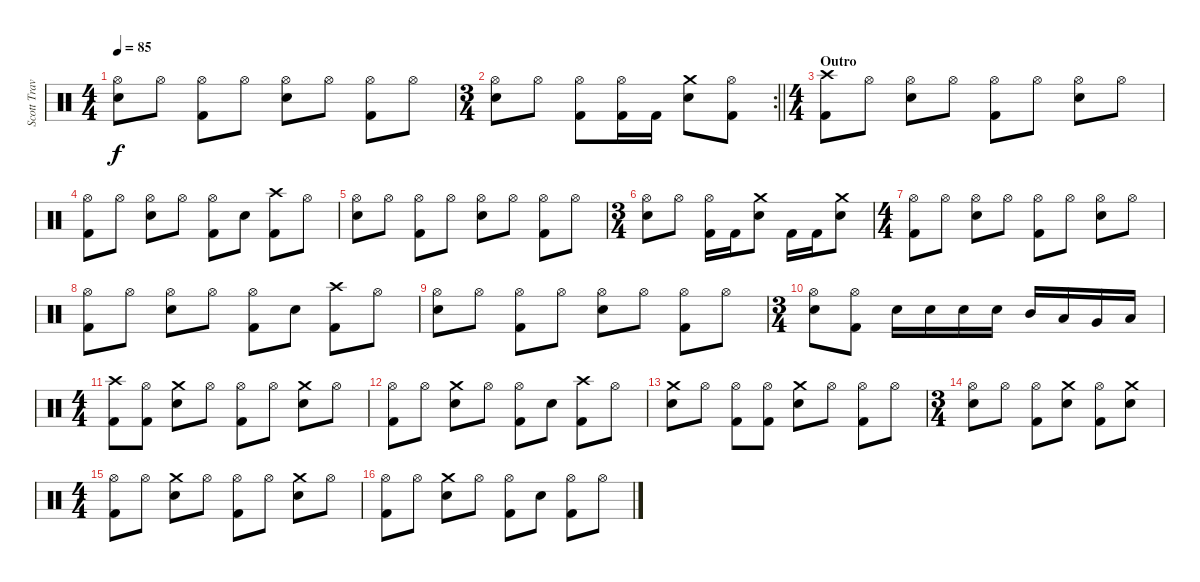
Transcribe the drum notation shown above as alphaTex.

\track ("Scott Travis" "Scott Trav") {instrument percussion}
\staff {score}
\articulation defaults
\ts (4 4)
\tempo 85
\clef neutral
\ks c
("Hi-Hat (open)" "Snare (hit) 2").8{dy f} "Hi-Hat (open)".8 ("Hi-Hat (open)" "Kick (hit) 2").8 "Hi-Hat (open)".8 ("Hi-Hat (open)" "Snare (hit) 2").8 "Hi-Hat (open)".8 ("Hi-Hat (open)" "Kick (hit) 2").8 "Hi-Hat (open)".8 |
\rc 2
\ts (3 4)
\barLineRight lightlight
("Hi-Hat (open)" "Snare (hit) 2").8 "Hi-Hat (open)".8 ("Hi-Hat (open)" "Kick (hit) 2").8 ("Hi-Hat (open)" "Kick (hit) 2").16 "Kick (hit) 2".16 ("Crash medium (hit)" "Snare (hit) 2").8 ("Hi-Hat (open)" "Kick (hit) 2").8 |
\ts (4 4)
\section ("" "Outro")
("Crash high (hit)" "Kick (hit) 2").8 "Hi-Hat (open)".8 ("Hi-Hat (open)" "Snare (hit) 2").8 "Hi-Hat (open)".8 ("Hi-Hat (open)" "Kick (hit) 2").8 "Hi-Hat (open)".8 ("Hi-Hat (open)" "Snare (hit) 2").8 "Hi-Hat (open)".8 |
("Hi-Hat (open)" "Kick (hit) 2").8 "Hi-Hat (open)".8 ("Hi-Hat (open)" "Snare (hit) 2").8 "Hi-Hat (open)".8 ("Hi-Hat (open)" "Kick (hit) 2").8 "Snare (hit) 2".8 ("Crash high (hit)" "Kick (hit) 2").8 "Hi-Hat (open)".8 |
("Hi-Hat (open)" "Snare (hit) 2").8 "Hi-Hat (open)".8 ("Hi-Hat (open)" "Kick (hit) 2").8 "Hi-Hat (open)".8 ("Hi-Hat (open)" "Snare (hit) 2").8 "Hi-Hat (open)".8 ("Hi-Hat (open)" "Kick (hit) 2").8 "Hi-Hat (open)".8 |
\ts (3 4)
("Hi-Hat (open)" "Snare (hit) 2").8 "Hi-Hat (open)".8 ("Hi-Hat (open)" "Kick (hit) 2").16 "Kick (hit) 2".16 ("Crash medium (hit)" "Snare (hit) 2").8 "Kick (hit) 2".16 "Kick (hit) 2".16 ("Crash medium (hit)" "Snare (hit) 2").8 |
\ts (4 4)
("Hi-Hat (open)" "Kick (hit) 2").8 "Hi-Hat (open)".8 ("Hi-Hat (open)" "Snare (hit) 2").8 "Hi-Hat (open)".8 ("Hi-Hat (open)" "Kick (hit) 2").8 "Hi-Hat (open)".8 ("Hi-Hat (open)" "Snare (hit) 2").8 "Hi-Hat (open)".8 |
("Hi-Hat (open)" "Kick (hit) 2").8 "Hi-Hat (open)".8 ("Hi-Hat (open)" "Snare (hit) 2").8 "Hi-Hat (open)".8 ("Hi-Hat (open)" "Kick (hit) 2").8 "Snare (hit) 2".8 ("Crash high (hit)" "Kick (hit) 2").8 "Hi-Hat (open)".8 |
("Hi-Hat (open)" "Snare (hit) 2").8 "Hi-Hat (open)".8 ("Hi-Hat (open)" "Kick (hit) 2").8 "Hi-Hat (open)".8 ("Hi-Hat (open)" "Snare (hit) 2").8 "Hi-Hat (open)".8 ("Hi-Hat (open)" "Kick (hit) 2").8 "Hi-Hat (open)".8 |
\ts (3 4)
("Hi-Hat (open)" "Snare (hit) 2").8 ("Hi-Hat (open)" "Kick (hit) 2").8 "Snare (hit) 2".16 "Snare (hit) 2".16 "Snare (hit) 2".16 "Snare (hit) 2".16 "Mid Tom (hit)".16 "Low Tom (hit)".16 "Very Low Tom (hit)".16 "Low Floor Tom (hit)".16 |
\ts (4 4)
("Crash high (hit)" "Kick (hit) 2").8 ("Hi-Hat (open)" "Kick (hit) 2").8 ("Crash medium (hit)" "Snare (hit) 2").8 "Hi-Hat (open)".8 ("Hi-Hat (open)" "Kick (hit) 2").8 "Hi-Hat (open)".8 ("Crash medium (hit)" "Snare (hit) 2").8 "Hi-Hat (open)".8 |
("Hi-Hat (open)" "Kick (hit) 2").8 "Hi-Hat (open)".8 ("Crash medium (hit)" "Snare (hit) 2").8 "Hi-Hat (open)".8 ("Hi-Hat (open)" "Kick (hit) 2").8 "Snare (hit) 2".8 ("Crash high (hit)" "Kick (hit) 2").8 "Hi-Hat (open)".8 |
("Crash medium (hit)" "Snare (hit) 2").8 "Hi-Hat (open)".8 ("Hi-Hat (open)" "Kick (hit) 2").8 ("Hi-Hat (open)" "Kick (hit) 2").8 ("Crash medium (hit)" "Snare (hit) 2").8 "Hi-Hat (open)".8 ("Hi-Hat (open)" "Kick (hit) 2").8 "Hi-Hat (open)".8 |
\ts (3 4)
("Hi-Hat (open)" "Snare (hit) 2").8 "Hi-Hat (open)".8 ("Hi-Hat (open)" "Kick (hit) 2").8 ("Crash medium (hit)" "Snare (hit) 2").8 ("Hi-Hat (open)" "Kick (hit) 2").8 ("Crash medium (hit)" "Snare (hit) 2").8 |
\ts (4 4)
("Hi-Hat (open)" "Kick (hit) 2").8 "Hi-Hat (open)".8 ("Crash medium (hit)" "Snare (hit) 2").8 "Hi-Hat (open)".8 ("Hi-Hat (open)" "Kick (hit) 2").8 "Hi-Hat (open)".8 ("Crash medium (hit)" "Snare (hit) 2").8 "Hi-Hat (open)".8 |
("Hi-Hat (open)" "Kick (hit) 2").8 "Hi-Hat (open)".8 ("Crash medium (hit)" "Snare (hit) 2").8 "Hi-Hat (open)".8 ("Hi-Hat (open)" "Kick (hit) 2").8 "Snare (hit) 2".8 ("Hi-Hat (open)" "Kick (hit) 2").8 "Hi-Hat (open)".8
